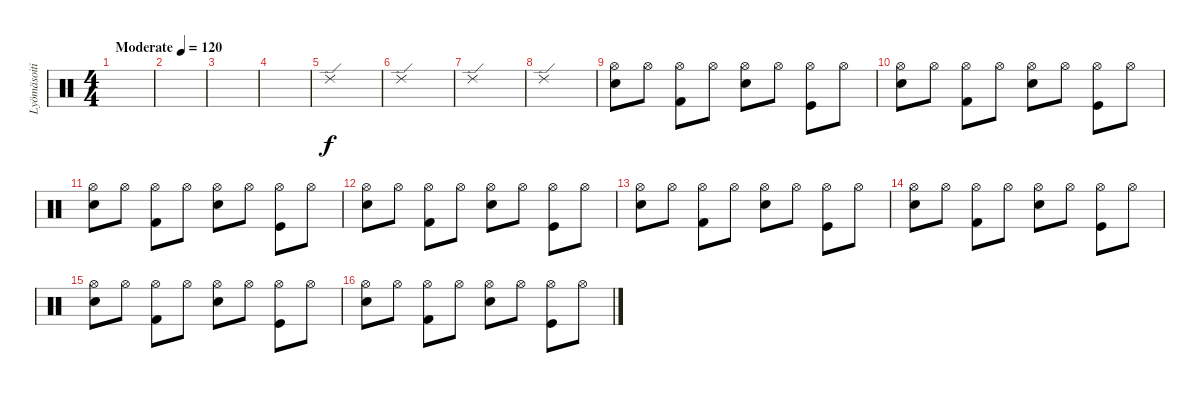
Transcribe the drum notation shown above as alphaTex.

\track ("Lyömäsoitin" "Lyömäsoiti") {instrument percussion}
\staff {score}
\articulation defaults
\ts (4 4)
\tempo (120 "Moderate")
\clef neutral
\ks c
|
|
|
|
"Ride (edge) 2".1 |
"Ride (edge) 2".1 |
"Ride (edge) 2".1 |
"Ride (edge) 2".1 |
("Hi-Hat (open)" "Electric Snare (hit)").8 "Hi-Hat (open)".8 ("Hi-Hat (open)" "Kick (hit) 2").8 "Hi-Hat (open)".8 ("Hi-Hat (open)" "Electric Snare (hit)").8 "Hi-Hat (open)".8 ("Hi-Hat (open)" "Kick (hit)").8 "Hi-Hat (open)".8 |
("Hi-Hat (open)" "Electric Snare (hit)").8 "Hi-Hat (open)".8 ("Hi-Hat (open)" "Kick (hit) 2").8 "Hi-Hat (open)".8 ("Hi-Hat (open)" "Electric Snare (hit)").8 "Hi-Hat (open)".8 ("Hi-Hat (open)" "Kick (hit)").8 "Hi-Hat (open)".8 |
("Hi-Hat (open)" "Electric Snare (hit)").8 "Hi-Hat (open)".8 ("Hi-Hat (open)" "Kick (hit) 2").8 "Hi-Hat (open)".8 ("Hi-Hat (open)" "Electric Snare (hit)").8 "Hi-Hat (open)".8 ("Hi-Hat (open)" "Kick (hit)").8 "Hi-Hat (open)".8 |
("Hi-Hat (open)" "Electric Snare (hit)").8 "Hi-Hat (open)".8 ("Hi-Hat (open)" "Kick (hit) 2").8 "Hi-Hat (open)".8 ("Hi-Hat (open)" "Electric Snare (hit)").8 "Hi-Hat (open)".8 ("Hi-Hat (open)" "Kick (hit)").8 "Hi-Hat (open)".8 |
("Hi-Hat (open)" "Electric Snare (hit)").8 "Hi-Hat (open)".8 ("Hi-Hat (open)" "Kick (hit) 2").8 "Hi-Hat (open)".8 ("Hi-Hat (open)" "Electric Snare (hit)").8 "Hi-Hat (open)".8 ("Hi-Hat (open)" "Kick (hit)").8 "Hi-Hat (open)".8 |
("Hi-Hat (open)" "Electric Snare (hit)").8 "Hi-Hat (open)".8 ("Hi-Hat (open)" "Kick (hit) 2").8 "Hi-Hat (open)".8 ("Hi-Hat (open)" "Electric Snare (hit)").8 "Hi-Hat (open)".8 ("Hi-Hat (open)" "Kick (hit)").8 "Hi-Hat (open)".8 |
("Hi-Hat (open)" "Electric Snare (hit)").8 "Hi-Hat (open)".8 ("Hi-Hat (open)" "Kick (hit) 2").8 "Hi-Hat (open)".8 ("Hi-Hat (open)" "Electric Snare (hit)").8 "Hi-Hat (open)".8 ("Hi-Hat (open)" "Kick (hit)").8 "Hi-Hat (open)".8 |
("Hi-Hat (open)" "Electric Snare (hit)").8 "Hi-Hat (open)".8 ("Hi-Hat (open)" "Kick (hit) 2").8 "Hi-Hat (open)".8 ("Hi-Hat (open)" "Electric Snare (hit)").8 "Hi-Hat (open)".8 ("Hi-Hat (open)" "Kick (hit)").8 "Hi-Hat (open)".8
